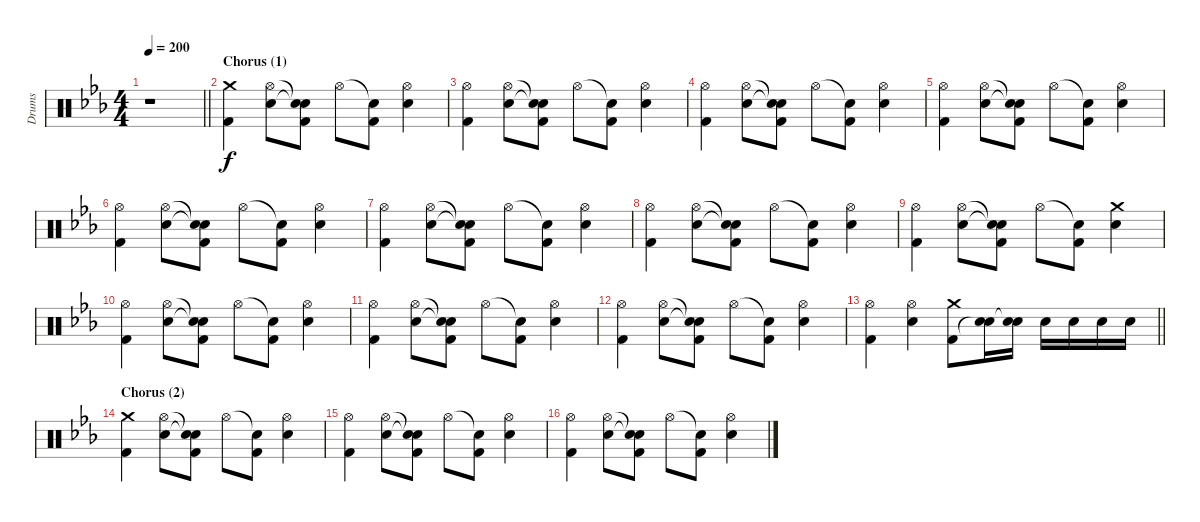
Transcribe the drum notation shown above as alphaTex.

\track ("Drums" "Drums") {instrument percussion}
\staff {score}
\articulation defaults
\ts (4 4)
\tempo 200
\clef neutral
\barLineRight lightlight
\ks cminor
r.1{dy f} |
\section ("" "Chorus (1)")
("Crash medium (hit)" "Kick (hit) 2").4 ("Hi-Hat (open)" "Electric Snare (hit)").8 ("Snare (hit)"{t} "Snare (hit)"{t} "Kick (hit) 2").8 "Hi-Hat (open)".8 ("Snare (hit)"{t} "Kick (hit) 2").8 ("Hi-Hat (open)" "Electric Snare (hit)").4 |
("Hi-Hat (open)" "Kick (hit) 2").4 ("Hi-Hat (open)" "Electric Snare (hit)").8 ("Snare (hit)"{t} "Snare (hit)"{t} "Kick (hit) 2").8 "Hi-Hat (open)".8 ("Snare (hit)"{t} "Kick (hit) 2").8 ("Hi-Hat (open)" "Electric Snare (hit)").4 |
("Hi-Hat (open)" "Kick (hit) 2").4 ("Hi-Hat (open)" "Electric Snare (hit)").8 ("Snare (hit)"{t} "Snare (hit)"{t} "Kick (hit) 2").8 "Hi-Hat (open)".8 ("Snare (hit)"{t} "Kick (hit) 2").8 ("Hi-Hat (open)" "Electric Snare (hit)").4 |
("Hi-Hat (open)" "Kick (hit) 2").4 ("Hi-Hat (open)" "Electric Snare (hit)").8 ("Snare (hit)"{t} "Snare (hit)"{t} "Kick (hit) 2").8 "Hi-Hat (open)".8 ("Snare (hit)"{t} "Kick (hit) 2").8 ("Hi-Hat (open)" "Electric Snare (hit)").4 |
("Hi-Hat (open)" "Kick (hit) 2").4 ("Hi-Hat (open)" "Electric Snare (hit)").8 ("Snare (hit)"{t} "Snare (hit)"{t} "Kick (hit) 2").8 "Hi-Hat (open)".8 ("Snare (hit)"{t} "Kick (hit) 2").8 ("Hi-Hat (open)" "Electric Snare (hit)").4 |
("Hi-Hat (open)" "Kick (hit) 2").4 ("Hi-Hat (open)" "Electric Snare (hit)").8 ("Snare (hit)"{t} "Snare (hit)"{t} "Kick (hit) 2").8 "Hi-Hat (open)".8 ("Snare (hit)"{t} "Kick (hit) 2").8 ("Hi-Hat (open)" "Electric Snare (hit)").4 |
("Hi-Hat (open)" "Kick (hit) 2").4 ("Hi-Hat (open)" "Electric Snare (hit)").8 ("Snare (hit)"{t} "Snare (hit)"{t} "Kick (hit) 2").8 "Hi-Hat (open)".8 ("Snare (hit)"{t} "Kick (hit) 2").8 ("Hi-Hat (open)" "Electric Snare (hit)").4 |
("Hi-Hat (open)" "Kick (hit) 2").4 ("Hi-Hat (open)" "Electric Snare (hit)").8 ("Snare (hit)"{t} "Snare (hit)"{t} "Kick (hit) 2").8 "Hi-Hat (open)".8 ("Snare (hit)"{t} "Kick (hit) 2").8 ("Crash medium (hit)" "Electric Snare (hit)").4 |
("Hi-Hat (open)" "Kick (hit) 2").4 ("Hi-Hat (open)" "Electric Snare (hit)").8 ("Snare (hit)"{t} "Snare (hit)"{t} "Kick (hit) 2").8 "Hi-Hat (open)".8 ("Snare (hit)"{t} "Kick (hit) 2").8 ("Hi-Hat (open)" "Electric Snare (hit)").4 |
("Hi-Hat (open)" "Kick (hit) 2").4 ("Hi-Hat (open)" "Electric Snare (hit)").8 ("Snare (hit)"{t} "Snare (hit)"{t} "Kick (hit) 2").8 "Hi-Hat (open)".8 ("Snare (hit)"{t} "Kick (hit) 2").8 ("Hi-Hat (open)" "Electric Snare (hit)").4 |
("Hi-Hat (open)" "Kick (hit) 2").4 ("Hi-Hat (open)" "Electric Snare (hit)").8 ("Snare (hit)"{t} "Snare (hit)"{t} "Kick (hit) 2").8 "Hi-Hat (open)".8 ("Snare (hit)"{t} "Kick (hit) 2").8 ("Hi-Hat (open)" "Electric Snare (hit)").4 |
\barLineRight lightlight
("Hi-Hat (open)" "Kick (hit) 2").4 ("Hi-Hat (open)" "Electric Snare (hit)").4 ("Crash medium (hit)" "Kick (hit) 2").8 ("Electric Snare (hit)" "Snare (hit)"{t}).16 ("Electric Snare (hit)" "Snare (hit)"{t}).16 "Electric Snare (hit)".16 "Electric Snare (hit)".16 "Electric Snare (hit)".16 "Electric Snare (hit)".16 |
\section ("" "Chorus (2)")
("Crash medium (hit)" "Kick (hit) 2").4 ("Hi-Hat (open)" "Electric Snare (hit)").8 ("Snare (hit)"{t} "Snare (hit)"{t} "Kick (hit) 2").8 "Hi-Hat (open)".8 ("Snare (hit)"{t} "Kick (hit) 2").8 ("Hi-Hat (open)" "Electric Snare (hit)").4 |
("Hi-Hat (open)" "Kick (hit) 2").4 ("Hi-Hat (open)" "Electric Snare (hit)").8 ("Snare (hit)"{t} "Snare (hit)"{t} "Kick (hit) 2").8 "Hi-Hat (open)".8 ("Snare (hit)"{t} "Kick (hit) 2").8 ("Hi-Hat (open)" "Electric Snare (hit)").4 |
("Hi-Hat (open)" "Kick (hit) 2").4 ("Hi-Hat (open)" "Electric Snare (hit)").8 ("Snare (hit)"{t} "Snare (hit)"{t} "Kick (hit) 2").8 "Hi-Hat (open)".8 ("Snare (hit)"{t} "Kick (hit) 2").8 ("Hi-Hat (open)" "Electric Snare (hit)").4
